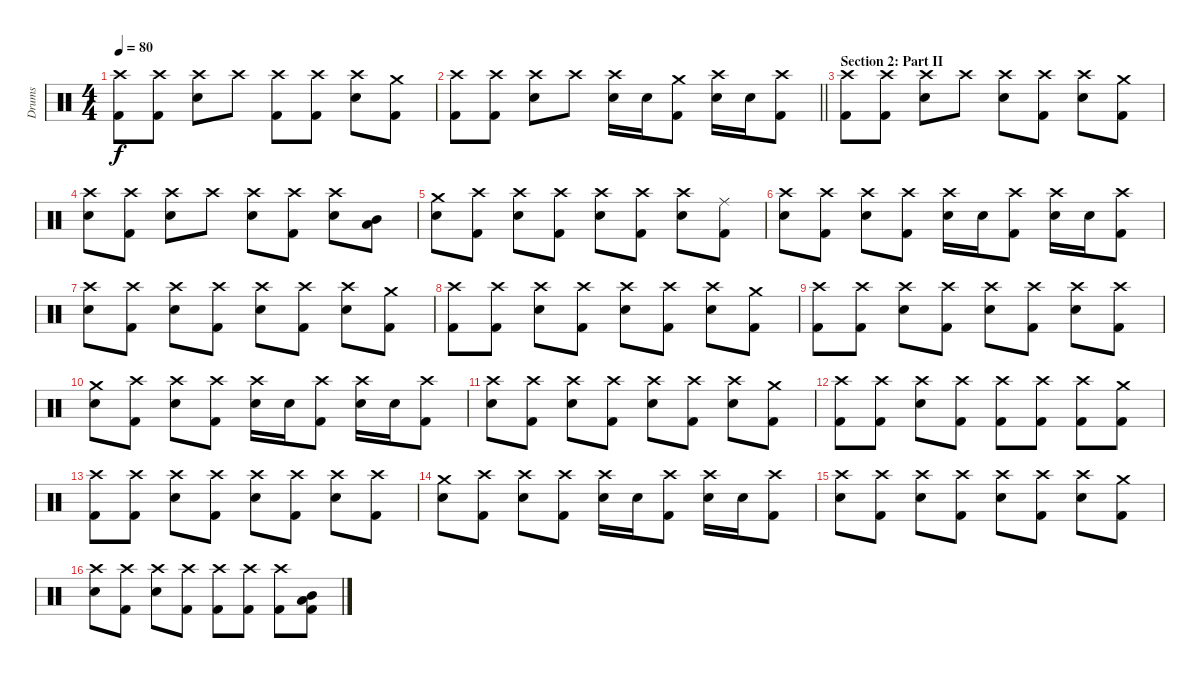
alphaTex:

\track ("Drums" "Drums") {instrument percussion}
\staff {score}
\articulation defaults
\ts (4 4)
\tempo 80
\clef neutral
\ks c
("Crash high (hit)" "Kick (hit) 2").8{dy f} ("Crash high (hit)" "Kick (hit) 2").8 ("Crash high (hit)" "Electric Snare (hit)").8 "Crash high (hit)".8 ("Crash high (hit)" "Kick (hit) 2").8 ("Crash high (hit)" "Kick (hit) 2").8 ("Crash high (hit)" "Electric Snare (hit)").8 ("Crash medium (hit)" "Kick (hit) 2").8 |
\barLineRight lightlight
("Crash high (hit)" "Kick (hit) 2").8 ("Crash high (hit)" "Kick (hit) 2").8 ("Crash high (hit)" "Electric Snare (hit)").8 "Crash high (hit)".8 ("Crash high (hit)" "Electric Snare (hit)").16 "Electric Snare (hit)".16 ("Crash medium (hit)" "Kick (hit) 2").8 ("Crash high (hit)" "Electric Snare (hit)").16 "Electric Snare (hit)".16 ("Crash high (hit)" "Kick (hit) 2").8 |
\section ("" "Section 2: Part II")
("Crash high (hit)" "Kick (hit) 2").8 ("Crash high (hit)" "Kick (hit) 2").8 ("Crash high (hit)" "Electric Snare (hit)").8 "Crash high (hit)".8 ("Crash high (hit)" "Electric Snare (hit)").8 ("Crash high (hit)" "Kick (hit) 2").8 ("Crash high (hit)" "Electric Snare (hit)").8 ("Crash medium (hit)" "Kick (hit) 2").8 |
("Crash high (hit)" "Electric Snare (hit)").8 ("Crash high (hit)" "Kick (hit) 2").8 ("Crash high (hit)" "Electric Snare (hit)").8 "Crash high (hit)".8 ("Crash high (hit)" "Electric Snare (hit)").8 ("Crash high (hit)" "Kick (hit) 2").8 ("Crash high (hit)" "Electric Snare (hit)").8 ("Mid Tom (hit)" "Low Tom (hit)").8 |
("Crash medium (hit)" "Electric Snare (hit)").8 ("Crash high (hit)" "Kick (hit) 2").8 ("Crash high (hit)" "Electric Snare (hit)").8 ("Crash high (hit)" "Kick (hit) 2").8 ("Crash high (hit)" "Electric Snare (hit)").8 ("Crash high (hit)" "Kick (hit) 2").8 ("Crash high (hit)" "Electric Snare (hit)").8 ("Ride (middle)" "Kick (hit) 2").8 |
("Crash high (hit)" "Electric Snare (hit)").8 ("Crash high (hit)" "Kick (hit) 2").8 ("Crash high (hit)" "Electric Snare (hit)").8 ("Crash high (hit)" "Kick (hit) 2").8 ("Crash high (hit)" "Electric Snare (hit)").16 "Electric Snare (hit)".16 ("Crash high (hit)" "Kick (hit) 2").8 ("Crash high (hit)" "Electric Snare (hit)").16 "Electric Snare (hit)".16 ("Crash high (hit)" "Kick (hit) 2").8 |
("Crash high (hit)" "Electric Snare (hit)").8 ("Crash high (hit)" "Kick (hit) 2").8 ("Crash high (hit)" "Electric Snare (hit)").8 ("Crash high (hit)" "Kick (hit) 2").8 ("Crash high (hit)" "Electric Snare (hit)").8 ("Crash high (hit)" "Kick (hit) 2").8 ("Crash high (hit)" "Electric Snare (hit)").8 ("Crash medium (hit)" "Kick (hit) 2").8 |
("Crash high (hit)" "Kick (hit) 2").8 ("Crash high (hit)" "Kick (hit) 2").8 ("Crash high (hit)" "Electric Snare (hit)").8 ("Crash high (hit)" "Kick (hit) 2").8 ("Crash high (hit)" "Electric Snare (hit)").8 ("Crash high (hit)" "Kick (hit) 2").8 ("Crash high (hit)" "Electric Snare (hit)").8 ("Crash medium (hit)" "Kick (hit) 2").8 |
("Crash high (hit)" "Kick (hit) 2").8 ("Crash high (hit)" "Kick (hit) 2").8 ("Crash high (hit)" "Electric Snare (hit)").8 ("Crash high (hit)" "Kick (hit) 2").8 ("Crash high (hit)" "Electric Snare (hit)").8 ("Crash high (hit)" "Kick (hit) 2").8 ("Crash high (hit)" "Electric Snare (hit)").8 ("Crash high (hit)" "Kick (hit) 2").8 |
("Crash medium (hit)" "Electric Snare (hit)").8 ("Crash high (hit)" "Kick (hit) 2").8 ("Crash high (hit)" "Electric Snare (hit)").8 ("Crash high (hit)" "Kick (hit) 2").8 ("Crash high (hit)" "Electric Snare (hit)").16 "Electric Snare (hit)".16 ("Crash high (hit)" "Kick (hit) 2").8 ("Crash high (hit)" "Electric Snare (hit)").16 "Electric Snare (hit)".16 ("Crash high (hit)" "Kick (hit) 2").8 |
("Crash high (hit)" "Electric Snare (hit)").8 ("Crash high (hit)" "Kick (hit) 2").8 ("Crash high (hit)" "Electric Snare (hit)").8 ("Crash high (hit)" "Kick (hit) 2").8 ("Crash high (hit)" "Electric Snare (hit)").8 ("Crash high (hit)" "Kick (hit) 2").8 ("Crash high (hit)" "Electric Snare (hit)").8 ("Crash medium (hit)" "Kick (hit) 2").8 |
("Crash high (hit)" "Kick (hit) 2").8 ("Crash high (hit)" "Kick (hit) 2").8 ("Crash high (hit)" "Electric Snare (hit)").8 ("Crash high (hit)" "Kick (hit) 2").8 ("Crash high (hit)" "Kick (hit) 2").8 ("Crash high (hit)" "Kick (hit) 2").8 ("Crash high (hit)" "Kick (hit) 2").8 ("Crash medium (hit)" "Kick (hit) 2").8 |
("Crash high (hit)" "Kick (hit) 2").8 ("Crash high (hit)" "Kick (hit) 2").8 ("Crash high (hit)" "Electric Snare (hit)").8 ("Crash high (hit)" "Kick (hit) 2").8 ("Crash high (hit)" "Electric Snare (hit)").8 ("Crash high (hit)" "Kick (hit) 2").8 ("Crash high (hit)" "Electric Snare (hit)").8 ("Crash high (hit)" "Kick (hit) 2").8 |
("Crash medium (hit)" "Electric Snare (hit)").8 ("Crash high (hit)" "Kick (hit) 2").8 ("Crash high (hit)" "Electric Snare (hit)").8 ("Crash high (hit)" "Kick (hit) 2").8 ("Crash high (hit)" "Electric Snare (hit)").16 "Electric Snare (hit)".16 ("Crash high (hit)" "Kick (hit) 2").8 ("Crash high (hit)" "Electric Snare (hit)").16 "Electric Snare (hit)".16 ("Crash high (hit)" "Kick (hit) 2").8 |
("Crash high (hit)" "Electric Snare (hit)").8 ("Crash high (hit)" "Kick (hit) 2").8 ("Crash high (hit)" "Electric Snare (hit)").8 ("Crash high (hit)" "Kick (hit) 2").8 ("Crash high (hit)" "Electric Snare (hit)").8 ("Crash high (hit)" "Kick (hit) 2").8 ("Crash high (hit)" "Electric Snare (hit)").8 ("Crash medium (hit)" "Kick (hit) 2").8 |
("Crash high (hit)" "Electric Snare (hit)").8 ("Crash high (hit)" "Kick (hit) 2").8 ("Crash high (hit)" "Electric Snare (hit)").8 ("Crash high (hit)" "Kick (hit) 2").8 ("Crash high (hit)" "Kick (hit) 2").8 ("Crash high (hit)" "Kick (hit) 2").8 ("Crash high (hit)" "Kick (hit) 2").8 ("Mid Tom (hit)" "Low Tom (hit)" "Kick (hit) 2").8
